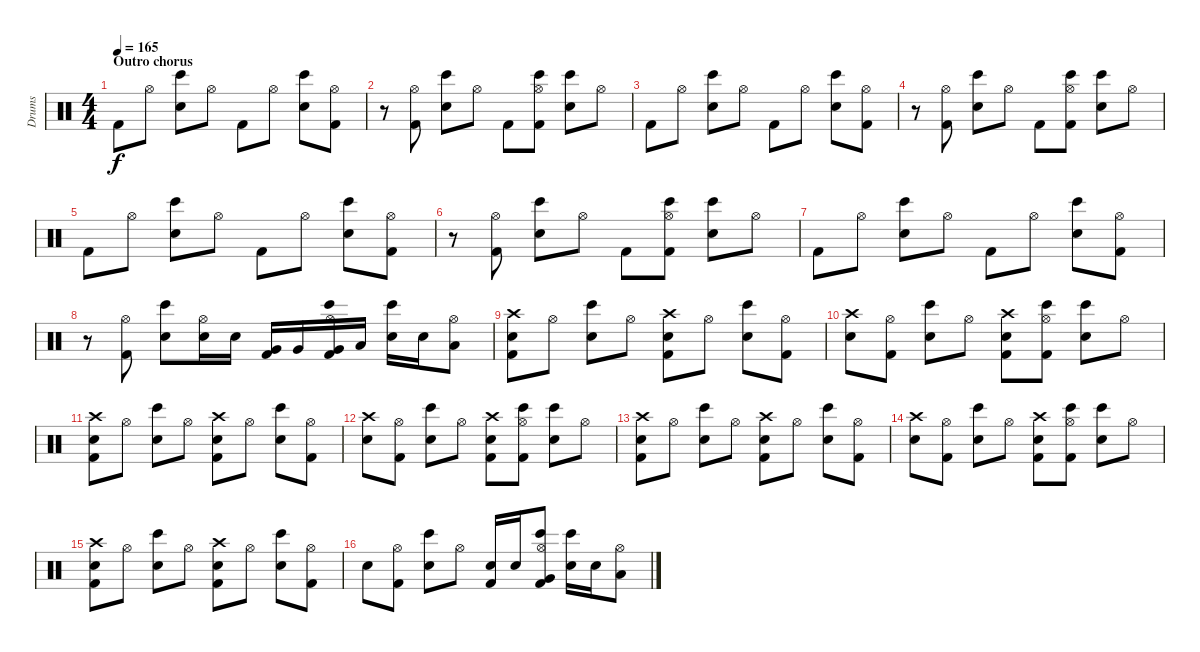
\track ("Drums" "Drums") {instrument percussion}
\staff {score}
\articulation defaults
\ts (4 4)
\section ("" "Outro chorus")
\tempo 165
\clef neutral
\ks c "Kick (hit) 2".8{dy f} "Hi-Hat (open)".8
("Electric Snare (hit)" "Bongo High (hit)").8 "Hi-Hat (open)".8 "Kick (hit) 2".8 "Hi-Hat (open)".8 ("Electric Snare (hit)" "Bongo High (hit)").8 ("Hi-Hat (open)" "Kick (hit) 2").8 |
r.8 ("Hi-Hat (open)" "Kick (hit) 2").8 ("Electric Snare (hit)" "Bongo High (hit)").8 "Hi-Hat (open)".8 "Kick (hit) 2".8 ("Hi-Hat (open)" "Kick (hit) 2" "Bongo High (hit)").8 ("Electric Snare (hit)" "Bongo High (hit)").8 "Hi-Hat (open)".8 |
"Kick (hit) 2".8 "Hi-Hat (open)".8 ("Electric Snare (hit)" "Bongo High (hit)").8 "Hi-Hat (open)".8 "Kick (hit) 2".8 "Hi-Hat (open)".8 ("Electric Snare (hit)" "Bongo High (hit)").8 ("Hi-Hat (open)" "Kick (hit) 2").8 |
r.8 ("Hi-Hat (open)" "Kick (hit) 2").8 ("Electric Snare (hit)" "Bongo High (hit)").8 "Hi-Hat (open)".8 "Kick (hit) 2".8 ("Hi-Hat (open)" "Kick (hit) 2" "Bongo High (hit)").8 ("Electric Snare (hit)" "Bongo High (hit)").8 "Hi-Hat (open)".8 |
"Kick (hit) 2".8 "Hi-Hat (open)".8 ("Electric Snare (hit)" "Bongo High (hit)").8 "Hi-Hat (open)".8 "Kick (hit) 2".8 "Hi-Hat (open)".8 ("Electric Snare (hit)" "Bongo High (hit)").8 ("Hi-Hat (open)" "Kick (hit) 2").8 |
r.8 ("Hi-Hat (open)" "Kick (hit) 2").8 ("Electric Snare (hit)" "Bongo High (hit)").8 "Hi-Hat (open)".8 "Kick (hit) 2".8 ("Hi-Hat (open)" "Kick (hit) 2" "Bongo High (hit)").8 ("Electric Snare (hit)" "Bongo High (hit)").8 "Hi-Hat (open)".8 |
"Kick (hit) 2".8 "Hi-Hat (open)".8 ("Electric Snare (hit)" "Bongo High (hit)").8 "Hi-Hat (open)".8 "Kick (hit) 2".8 "Hi-Hat (open)".8 ("Electric Snare (hit)" "Bongo High (hit)").8 ("Hi-Hat (open)" "Kick (hit) 2").8 |
r.8 ("Hi-Hat (open)" "Kick (hit) 2").8 ("Electric Snare (hit)" "Bongo High (hit)").8 ("Hi-Hat (open)" "Electric Snare (hit)").16 "Electric Snare (hit)".16 ("Kick (hit) 2" "Very Low Tom (hit)").16 "Very Low Tom (hit)".16 ("Hi-Hat (open)" "Kick (hit) 2" "Very Low Tom (hit)" "Bongo High (hit)").16 "Low Floor Tom (hit)".16 ("Electric Snare (hit)" "Bongo High (hit)").16 "Electric Snare (hit)".16 ("Hi-Hat (open)" "Low Floor Tom (hit)").8 |
("Crash high (hit)" "Kick (hit) 2" "Electric Snare (hit)").8 "Hi-Hat (open)".8 ("Electric Snare (hit)" "Bongo High (hit)").8 "Hi-Hat (open)".8 ("Crash high (hit)" "Kick (hit) 2" "Electric Snare (hit)").8 "Hi-Hat (open)".8 ("Electric Snare (hit)" "Bongo High (hit)").8 ("Hi-Hat (open)" "Kick (hit) 2").8 |
("Crash high (hit)" "Electric Snare (hit)").8 ("Hi-Hat (open)" "Kick (hit) 2").8 ("Electric Snare (hit)" "Bongo High (hit)").8 "Hi-Hat (open)".8 ("Crash high (hit)" "Kick (hit) 2" "Electric Snare (hit)").8 ("Hi-Hat (open)" "Kick (hit) 2" "Bongo High (hit)").8 ("Electric Snare (hit)" "Bongo High (hit)").8 "Hi-Hat (open)".8 |
("Crash high (hit)" "Kick (hit) 2" "Electric Snare (hit)").8 "Hi-Hat (open)".8 ("Electric Snare (hit)" "Bongo High (hit)").8 "Hi-Hat (open)".8 ("Crash high (hit)" "Kick (hit) 2" "Electric Snare (hit)").8 "Hi-Hat (open)".8 ("Electric Snare (hit)" "Bongo High (hit)").8 ("Hi-Hat (open)" "Kick (hit) 2").8 |
("Crash high (hit)" "Electric Snare (hit)").8 ("Hi-Hat (open)" "Kick (hit) 2").8 ("Electric Snare (hit)" "Bongo High (hit)").8 "Hi-Hat (open)".8 ("Crash high (hit)" "Kick (hit) 2" "Electric Snare (hit)").8 ("Hi-Hat (open)" "Kick (hit) 2" "Bongo High (hit)").8 ("Electric Snare (hit)" "Bongo High (hit)").8 "Hi-Hat (open)".8 |
("Crash high (hit)" "Kick (hit) 2" "Electric Snare (hit)").8 "Hi-Hat (open)".8 ("Electric Snare (hit)" "Bongo High (hit)").8 "Hi-Hat (open)".8 ("Crash high (hit)" "Kick (hit) 2" "Electric Snare (hit)").8 "Hi-Hat (open)".8 ("Electric Snare (hit)" "Bongo High (hit)").8 ("Hi-Hat (open)" "Kick (hit) 2").8 |
("Crash high (hit)" "Electric Snare (hit)").8 ("Hi-Hat (open)" "Kick (hit) 2").8 ("Electric Snare (hit)" "Bongo High (hit)").8 "Hi-Hat (open)".8 ("Crash high (hit)" "Kick (hit) 2" "Electric Snare (hit)").8 ("Hi-Hat (open)" "Kick (hit) 2" "Bongo High (hit)").8 ("Electric Snare (hit)" "Bongo High (hit)").8 "Hi-Hat (open)".8 |
("Crash high (hit)" "Kick (hit) 2" "Electric Snare (hit)").8 "Hi-Hat (open)".8 ("Electric Snare (hit)" "Bongo High (hit)").8 "Hi-Hat (open)".8 ("Crash high (hit)" "Kick (hit) 2" "Electric Snare (hit)").8 "Hi-Hat (open)".8 ("Electric Snare (hit)" "Bongo High (hit)").8 ("Hi-Hat (open)" "Kick (hit) 2").8 |
"Electric Snare (hit)".8 ("Hi-Hat (open)" "Kick (hit) 2").8 ("Electric Snare (hit)" "Bongo High (hit)").8 "Hi-Hat (open)".8 ("Kick (hit) 2" "Electric Snare (hit)").16 "Electric Snare (hit)".16 ("Hi-Hat (open)" "Kick (hit) 2" "Very Low Tom (hit)" "Bongo High (hit)").8 ("Electric Snare (hit)" "Bongo High (hit)").16 "Electric Snare (hit)".16 ("Hi-Hat (open)" "Low Floor Tom (hit)").8
